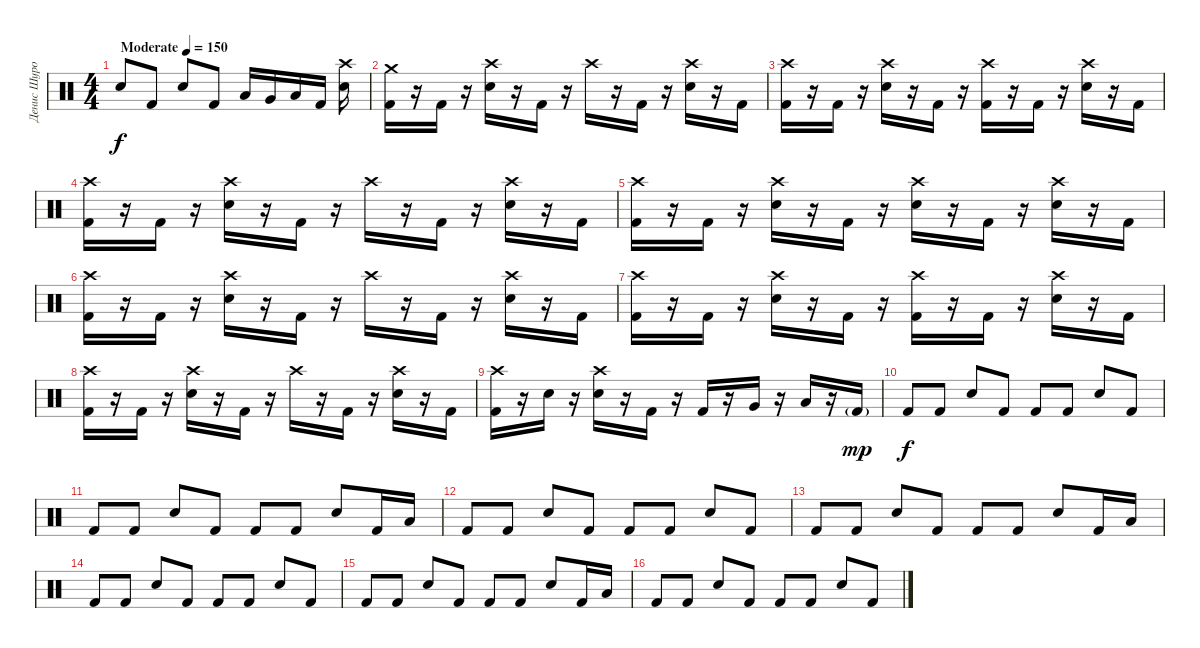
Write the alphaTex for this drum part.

\track ("Денис Шуров" "Денис Шуро") {instrument percussion}
\staff {score}
\articulation defaults
\ts (4 4)
\tempo (150 "Moderate")
\clef neutral
\ks c "Snare (hit) 2".8{dy f} "Kick (hit) 2".8 "Electric Snare (hit)".8 "Kick (hit) 2".8 "Low Tom (hit)".16 "Very Low Tom (hit)".16 "Low Floor Tom (hit)".16 "Kick (hit) 2".16
("Crash high (hit)" "Electric Snare (hit)").16 |
("Crash medium (hit)" "Kick (hit) 2").16 r.16 "Kick (hit) 2".16 r.16 ("Crash high (hit)" "Electric Snare (hit)").16 r.16 "Kick (hit) 2".16 r.16 "Crash high (hit)".16 r.16 "Kick (hit) 2".16 r.16 ("Crash high (hit)" "Electric Snare (hit)").16 r.16 "Kick (hit) 2".16 |
("Crash high (hit)" "Kick (hit) 2").16 r.16 "Kick (hit) 2".16 r.16 ("Crash high (hit)" "Electric Snare (hit)").16 r.16 "Kick (hit) 2".16 r.16 ("Crash high (hit)" "Kick (hit) 2").16 r.16 "Kick (hit) 2".16 r.16 ("Crash high (hit)" "Electric Snare (hit)").16 r.16 "Kick (hit) 2".16 |
("Crash high (hit)" "Kick (hit) 2").16 r.16 "Kick (hit) 2".16 r.16 ("Crash high (hit)" "Electric Snare (hit)").16 r.16 "Kick (hit) 2".16 r.16 "Crash high (hit)".16 r.16 "Kick (hit) 2".16 r.16 ("Crash high (hit)" "Electric Snare (hit)").16 r.16 "Kick (hit) 2".16 |
("Crash high (hit)" "Kick (hit) 2").16 r.16 "Kick (hit) 2".16 r.16 ("Crash high (hit)" "Electric Snare (hit)").16 r.16 "Kick (hit) 2".16 r.16 ("Crash high (hit)" "Electric Snare (hit)").16 r.16 "Kick (hit) 2".16 r.16 ("Crash high (hit)" "Electric Snare (hit)").16 r.16 "Kick (hit) 2".16 |
("Crash high (hit)" "Kick (hit) 2").16 r.16 "Kick (hit) 2".16 r.16 ("Crash high (hit)" "Electric Snare (hit)").16 r.16 "Kick (hit) 2".16 r.16 "Crash high (hit)".16 r.16 "Kick (hit) 2".16 r.16 ("Crash high (hit)" "Electric Snare (hit)").16 r.16 "Kick (hit) 2".16 |
("Crash high (hit)" "Kick (hit) 2").16 r.16 "Kick (hit) 2".16 r.16 ("Crash high (hit)" "Electric Snare (hit)").16 r.16 "Kick (hit) 2".16 r.16 ("Crash high (hit)" "Kick (hit) 2").16 r.16 "Kick (hit) 2".16 r.16 ("Crash high (hit)" "Electric Snare (hit)").16 r.16 "Kick (hit) 2".16 |
("Crash high (hit)" "Kick (hit) 2").16 r.16 "Kick (hit) 2".16 r.16 ("Crash high (hit)" "Electric Snare (hit)").16 r.16 "Kick (hit) 2".16 r.16 "Crash high (hit)".16 r.16 "Kick (hit) 2".16 r.16 ("Crash high (hit)" "Electric Snare (hit)").16 r.16 "Kick (hit) 2".16 |
("Crash high (hit)" "Kick (hit) 2").16 r.16 "Electric Snare (hit)".16 r.16 ("Crash high (hit)" "Electric Snare (hit)").16 r.16 "Kick (hit) 2".16 r.16 "Kick (hit) 2".16 r.16 "Very Low Tom (hit)".16 r.16 "Low Floor Tom (hit)".16 r.16 "Kick (hit) 2"{g}.16{dy mp} |
"Kick (hit) 2".8{dy f} "Kick (hit) 2".8 "Electric Snare (hit)".8 "Kick (hit) 2".8 "Kick (hit) 2".8 "Kick (hit) 2".8 "Electric Snare (hit)".8 "Kick (hit) 2".8 |
"Kick (hit) 2".8 "Kick (hit) 2".8 "Electric Snare (hit)".8 "Kick (hit) 2".8 "Kick (hit) 2".8 "Kick (hit) 2".8 "Electric Snare (hit)".8 "Kick (hit) 2".16 "Low Tom (hit)".16 |
"Kick (hit) 2".8 "Kick (hit) 2".8 "Electric Snare (hit)".8 "Kick (hit) 2".8 "Kick (hit) 2".8 "Kick (hit) 2".8 "Electric Snare (hit)".8 "Kick (hit) 2".8 |
"Kick (hit) 2".8 "Kick (hit) 2".8 "Electric Snare (hit)".8 "Kick (hit) 2".8 "Kick (hit) 2".8 "Kick (hit) 2".8 "Electric Snare (hit)".8 "Kick (hit) 2".16 "Low Tom (hit)".16 |
"Kick (hit) 2".8 "Kick (hit) 2".8 "Electric Snare (hit)".8 "Kick (hit) 2".8 "Kick (hit) 2".8 "Kick (hit) 2".8 "Electric Snare (hit)".8 "Kick (hit) 2".8 |
"Kick (hit) 2".8 "Kick (hit) 2".8 "Electric Snare (hit)".8 "Kick (hit) 2".8 "Kick (hit) 2".8 "Kick (hit) 2".8 "Electric Snare (hit)".8 "Kick (hit) 2".16 "Low Tom (hit)".16 |
"Kick (hit) 2".8 "Kick (hit) 2".8 "Electric Snare (hit)".8 "Kick (hit) 2".8 "Kick (hit) 2".8 "Kick (hit) 2".8 "Electric Snare (hit)".8 "Kick (hit) 2".8
